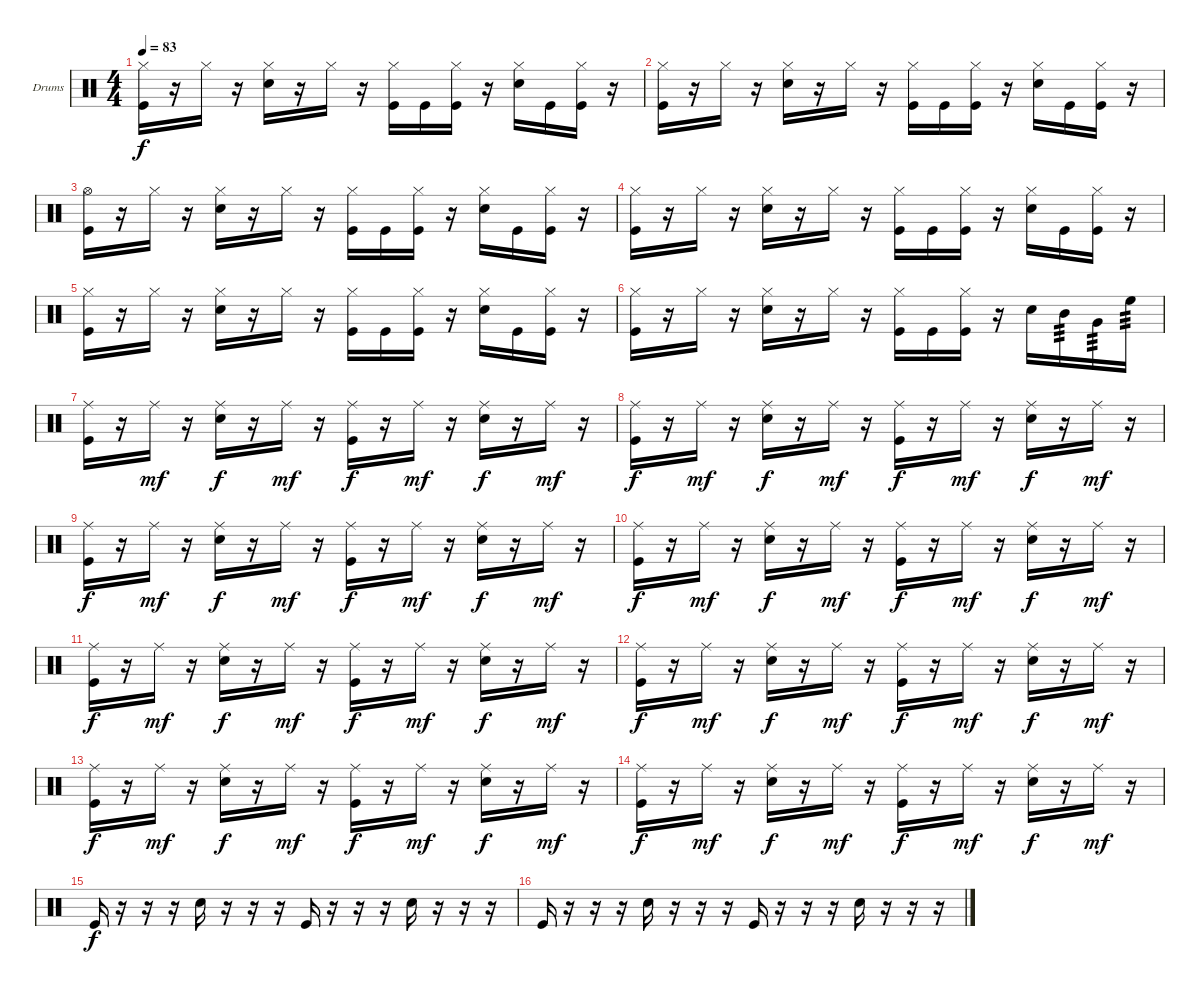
\bracketExtendMode groupsimilarinstruments
\firstSystemTrackNameOrientation horizontal
\otherSystemsTrackNameOrientation horizontal
\track ("Drumkit" "Drums") {instrument percussion}
\staff {score}
\articulation defaults
\ts (4 4)
\tempo 83
\clef neutral
\ks c
("Hi-Hat (closed)" "Kick (hit)").16{dy f} r.16 "Hi-Hat (closed)".16 r.16 ("Hi-Hat (closed)" "Snare (hit) 2").16 r.16 "Hi-Hat (closed)".16 r.16 ("Hi-Hat (closed)" "Kick (hit)").16 "Kick (hit)".16 ("Hi-Hat (closed)" "Kick (hit)").16 r.16 ("Hi-Hat (closed)" "Snare (hit) 2").16 "Kick (hit)".16 ("Hi-Hat (closed)" "Kick (hit)").16 r.16 |
("Hi-Hat (closed)" "Kick (hit)").16 r.16 "Hi-Hat (closed)".16 r.16 ("Hi-Hat (closed)" "Snare (hit) 2").16 r.16 "Hi-Hat (closed)".16 r.16 ("Hi-Hat (closed)" "Kick (hit)").16 "Kick (hit)".16 ("Hi-Hat (closed)" "Kick (hit)").16 r.16 ("Hi-Hat (closed)" "Snare (hit) 2").16 "Kick (hit)".16 ("Hi-Hat (closed)" "Kick (hit)").16 r.16 |
("Hi-Hat (open)" "Kick (hit)").16 r.16 "Hi-Hat (closed)".16 r.16 ("Hi-Hat (closed)" "Snare (hit) 2").16 r.16 "Hi-Hat (closed)".16 r.16 ("Hi-Hat (closed)" "Kick (hit)").16 "Kick (hit)".16 ("Hi-Hat (closed)" "Kick (hit)").16 r.16 ("Hi-Hat (closed)" "Snare (hit) 2").16 "Kick (hit)".16 ("Hi-Hat (closed)" "Kick (hit)").16 r.16 |
("Hi-Hat (closed)" "Kick (hit)").16 r.16 "Hi-Hat (closed)".16 r.16 ("Hi-Hat (closed)" "Snare (hit) 2").16 r.16 "Hi-Hat (closed)".16 r.16 ("Hi-Hat (closed)" "Kick (hit)").16 "Kick (hit)".16 ("Hi-Hat (closed)" "Kick (hit)").16 r.16 ("Hi-Hat (closed)" "Snare (hit) 2").16 "Kick (hit)".16 ("Hi-Hat (closed)" "Kick (hit)").16 r.16 |
("Hi-Hat (closed)" "Kick (hit)").16 r.16 "Hi-Hat (closed)".16 r.16 ("Hi-Hat (closed)" "Snare (hit) 2").16 r.16 "Hi-Hat (closed)".16 r.16 ("Hi-Hat (closed)" "Kick (hit)").16 "Kick (hit)".16 ("Hi-Hat (closed)" "Kick (hit)").16 r.16 ("Hi-Hat (closed)" "Snare (hit) 2").16 "Kick (hit)".16 ("Hi-Hat (closed)" "Kick (hit)").16 r.16 |
("Hi-Hat (closed)" "Kick (hit)").16 r.16 "Hi-Hat (closed)".16 r.16 ("Hi-Hat (closed)" "Snare (hit) 2").16 r.16 "Hi-Hat (closed)".16 r.16 ("Hi-Hat (closed)" "Kick (hit)").16 "Kick (hit)".16 ("Hi-Hat (closed)" "Kick (hit)").16 r.16 "Snare (hit) 2".16 "Mid Tom (hit)".16{tp 3} "Very Low Tom (hit)".16{tp 3} "High Floor Tom (hit)".16{tp 3} |
("Kick (hit)" "Ride (middle)").16 r.16 "Ride (middle)".16{dy mf} r.16 ("Snare (hit) 2" "Ride (middle)").16{dy f} r.16 "Ride (middle)".16{dy mf} r.16 ("Kick (hit)" "Ride (middle)").16{dy f} r.16 "Ride (middle)".16{dy mf} r.16 ("Snare (hit) 2" "Ride (middle)").16{dy f} r.16 "Ride (middle)".16{dy mf} r.16 |
("Kick (hit)" "Ride (middle)").16{dy f} r.16 "Ride (middle)".16{dy mf} r.16 ("Snare (hit) 2" "Ride (middle)").16{dy f} r.16 "Ride (middle)".16{dy mf} r.16 ("Kick (hit)" "Ride (middle)").16{dy f} r.16 "Ride (middle)".16{dy mf} r.16 ("Snare (hit) 2" "Ride (middle)").16{dy f} r.16 "Ride (middle)".16{dy mf} r.16 |
("Kick (hit)" "Ride (middle)").16{dy f} r.16 "Ride (middle)".16{dy mf} r.16 ("Snare (hit) 2" "Ride (middle)").16{dy f} r.16 "Ride (middle)".16{dy mf} r.16 ("Kick (hit)" "Ride (middle)").16{dy f} r.16 "Ride (middle)".16{dy mf} r.16 ("Snare (hit) 2" "Ride (middle)").16{dy f} r.16 "Ride (middle)".16{dy mf} r.16 |
("Kick (hit)" "Ride (middle)").16{dy f} r.16 "Ride (middle)".16{dy mf} r.16 ("Snare (hit) 2" "Ride (middle)").16{dy f} r.16 "Ride (middle)".16{dy mf} r.16 ("Kick (hit)" "Ride (middle)").16{dy f} r.16 "Ride (middle)".16{dy mf} r.16 ("Snare (hit) 2" "Ride (middle)").16{dy f} r.16 "Ride (middle)".16{dy mf} r.16 |
("Kick (hit)" "Ride (middle)").16{dy f} r.16 "Ride (middle)".16{dy mf} r.16 ("Snare (hit) 2" "Ride (middle)").16{dy f} r.16 "Ride (middle)".16{dy mf} r.16 ("Kick (hit)" "Ride (middle)").16{dy f} r.16 "Ride (middle)".16{dy mf} r.16 ("Snare (hit) 2" "Ride (middle)").16{dy f} r.16 "Ride (middle)".16{dy mf} r.16 |
("Kick (hit)" "Ride (middle)").16{dy f} r.16 "Ride (middle)".16{dy mf} r.16 ("Snare (hit) 2" "Ride (middle)").16{dy f} r.16 "Ride (middle)".16{dy mf} r.16 ("Kick (hit)" "Ride (middle)").16{dy f} r.16 "Ride (middle)".16{dy mf} r.16 ("Snare (hit) 2" "Ride (middle)").16{dy f} r.16 "Ride (middle)".16{dy mf} r.16 |
("Kick (hit)" "Ride (middle)").16{dy f} r.16 "Ride (middle)".16{dy mf} r.16 ("Snare (hit) 2" "Ride (middle)").16{dy f} r.16 "Ride (middle)".16{dy mf} r.16 ("Kick (hit)" "Ride (middle)").16{dy f} r.16 "Ride (middle)".16{dy mf} r.16 ("Snare (hit) 2" "Ride (middle)").16{dy f} r.16 "Ride (middle)".16{dy mf} r.16 |
("Kick (hit)" "Ride (middle)").16{dy f} r.16 "Ride (middle)".16{dy mf} r.16 ("Snare (hit) 2" "Ride (middle)").16{dy f} r.16 "Ride (middle)".16{dy mf} r.16 ("Kick (hit)" "Ride (middle)").16{dy f} r.16 "Ride (middle)".16{dy mf} r.16 ("Snare (hit) 2" "Ride (middle)").16{dy f} r.16 "Ride (middle)".16{dy mf} r.16 |
"Kick (hit)".16{dy f} r.16 r.16 r.16 "Snare (hit) 2".16 r.16 r.16 r.16 "Kick (hit)".16 r.16 r.16 r.16 "Snare (hit) 2".16 r.16 r.16 r.16 |
"Kick (hit)".16 r.16 r.16 r.16 "Snare (hit) 2".16 r.16 r.16 r.16 "Kick (hit)".16 r.16 r.16 r.16 "Snare (hit) 2".16 r.16 r.16 r.16
